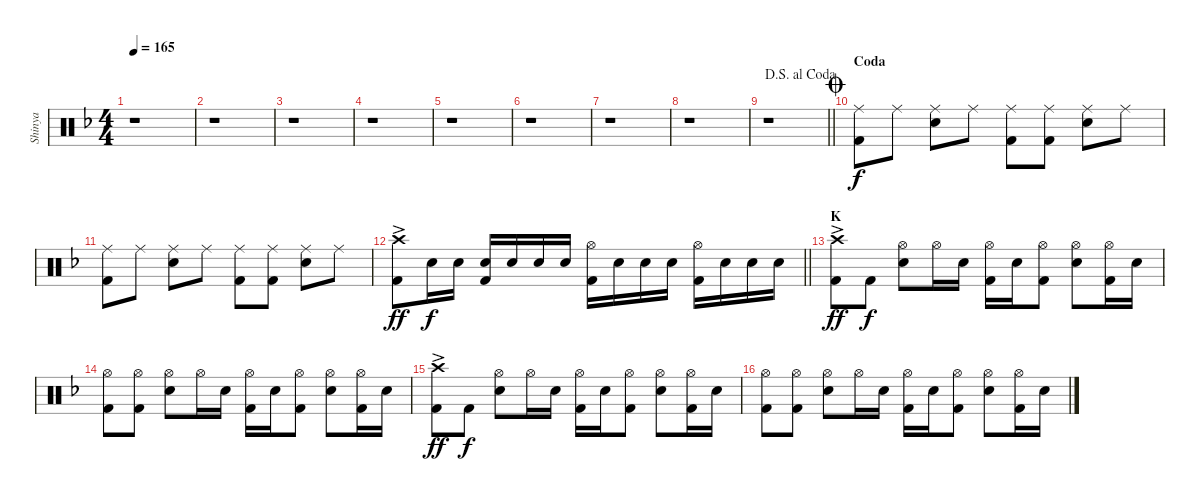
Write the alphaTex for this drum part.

\track ("Shinya" "Shinya") {instrument percussion}
\staff {score}
\articulation defaults
\ts (4 4)
\tempo 165
\clef neutral
\ks dminor
r.1{dy ff} |
r.1 |
r.1 |
r.1 |
r.1 |
r.1 |
r.1 |
r.1 |
\jump dalsegnoalcoda
\barLineRight lightlight
r.1 |
\section ("" "Coda")
\jump coda
("Ride (middle)" "Kick (hit) 2").8{dy f} "Ride (middle)".8 ("Ride (middle)" "Snare (hit) 2").8 "Ride (middle)".8 ("Ride (middle)" "Kick (hit) 2").8 ("Ride (middle)" "Kick (hit) 2").8 ("Ride (middle)" "Snare (hit) 2").8 "Ride (middle)".8 |
("Ride (middle)" "Kick (hit) 2").8 "Ride (middle)".8 ("Ride (middle)" "Snare (hit) 2").8 "Ride (middle)".8 ("Ride (middle)" "Kick (hit) 2").8 ("Ride (middle)" "Kick (hit) 2").8 ("Ride (middle)" "Snare (hit) 2").8 "Ride (middle)".8 |
\barLineRight lightlight
("Crash high (hit)"{ac} "Kick (hit) 2").8{dy ff} "Snare (hit) 2".16{dy f} "Snare (hit) 2".16 ("Snare (hit) 2" "Kick (hit) 2").16 "Snare (hit) 2".16 "Snare (hit) 2".16 "Snare (hit) 2".16 ("Hi-Hat (open)" "Kick (hit) 2").16 "Snare (hit) 2".16 "Snare (hit) 2".16 "Snare (hit) 2".16 ("Hi-Hat (open)" "Kick (hit) 2").16 "Snare (hit) 2".16 "Snare (hit) 2".16 "Snare (hit) 2".16 |
\section ("" "K")
("Crash high (hit)"{ac} "Kick (hit) 2").8{dy ff} "Kick (hit) 2".8{dy f} ("Hi-Hat (open)" "Snare (hit) 2").8 "Hi-Hat (open)".16 "Snare (hit) 2".16 ("Hi-Hat (open)" "Kick (hit) 2").16 "Snare (hit) 2".16 ("Hi-Hat (open)" "Kick (hit) 2").8 ("Hi-Hat (open)" "Snare (hit) 2").8 ("Hi-Hat (open)" "Kick (hit) 2").16 "Snare (hit) 2".16 |
("Hi-Hat (open)" "Kick (hit) 2").8 ("Hi-Hat (open)" "Kick (hit) 2").8 ("Hi-Hat (open)" "Snare (hit) 2").8 "Hi-Hat (open)".16 "Snare (hit) 2".16 ("Hi-Hat (open)" "Kick (hit) 2").16 "Snare (hit) 2".16 ("Hi-Hat (open)" "Kick (hit) 2").8 ("Hi-Hat (open)" "Snare (hit) 2").8 ("Hi-Hat (open)" "Kick (hit) 2").16 "Snare (hit) 2".16 |
("Crash high (hit)"{ac} "Kick (hit) 2").8{dy ff} "Kick (hit) 2".8{dy f} ("Hi-Hat (open)" "Snare (hit) 2").8 "Hi-Hat (open)".16 "Snare (hit) 2".16 ("Hi-Hat (open)" "Kick (hit) 2").16 "Snare (hit) 2".16 ("Hi-Hat (open)" "Kick (hit) 2").8 ("Hi-Hat (open)" "Snare (hit) 2").8 ("Hi-Hat (open)" "Kick (hit) 2").16 "Snare (hit) 2".16 |
("Hi-Hat (open)" "Kick (hit) 2").8 ("Hi-Hat (open)" "Kick (hit) 2").8 ("Hi-Hat (open)" "Snare (hit) 2").8 "Hi-Hat (open)".16 "Snare (hit) 2".16 ("Hi-Hat (open)" "Kick (hit) 2").16 "Snare (hit) 2".16 ("Hi-Hat (open)" "Kick (hit) 2").8 ("Hi-Hat (open)" "Snare (hit) 2").8 ("Hi-Hat (open)" "Kick (hit) 2").16 "Snare (hit) 2".16
